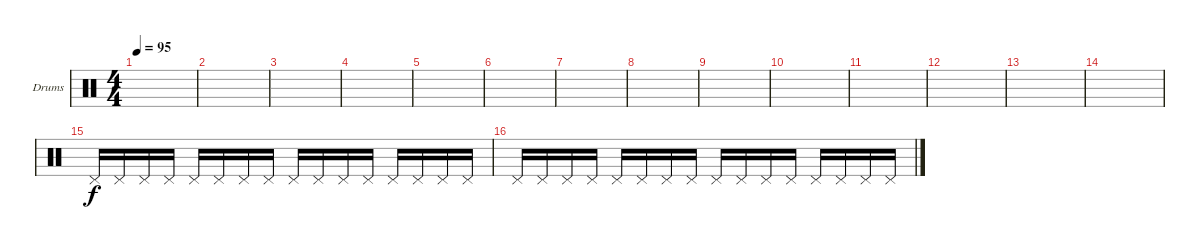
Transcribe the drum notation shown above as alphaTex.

\defaultSystemsLayout 4
\bracketExtendMode groupsimilarinstruments
\firstSystemTrackNameOrientation horizontal
\otherSystemsTrackNameOrientation horizontal
\track ("Drumkit" "Drums") {instrument percussion}
\staff {score}
\articulation defaults
\ts (4 4)
\tempo 95
\clef neutral
\scale
0.472222
\ks c
|
\scale
0.263889 |
\scale
0.263889 |
\scale
0.333333 |
\scale
0.333333 |
\scale
0.333333 |
\scale
0.333333 |
\scale
0.333333 |
\scale
0.333333 |
\scale
0.333333 |
\scale
0.333333 |
\scale
0.333333 |
\scale
0.333333 |
\scale
0.333333 |
\scale
0.333333 "Pedal Hi-Hat (hit)".16 "Pedal Hi-Hat (hit)".16 "Pedal Hi-Hat (hit)".16 "Pedal Hi-Hat (hit)".16 "Pedal Hi-Hat (hit)".16 "Pedal Hi-Hat (hit)".16 "Pedal Hi-Hat (hit)".16 "Pedal Hi-Hat (hit)".16 "Pedal Hi-Hat (hit)".16 "Pedal Hi-Hat (hit)".16 "Pedal Hi-Hat (hit)".16 "Pedal Hi-Hat (hit)".16 "Pedal Hi-Hat (hit)".16 "Pedal Hi-Hat (hit)".16 "Pedal Hi-Hat (hit)".16 "Pedal Hi-Hat (hit)".16 |
"Pedal Hi-Hat (hit)".16 "Pedal Hi-Hat (hit)".16 "Pedal Hi-Hat (hit)".16 "Pedal Hi-Hat (hit)".16 "Pedal Hi-Hat (hit)".16 "Pedal Hi-Hat (hit)".16 "Pedal Hi-Hat (hit)".16 "Pedal Hi-Hat (hit)".16 "Pedal Hi-Hat (hit)".16 "Pedal Hi-Hat (hit)".16 "Pedal Hi-Hat (hit)".16 "Pedal Hi-Hat (hit)".16 "Pedal Hi-Hat (hit)".16 "Pedal Hi-Hat (hit)".16 "Pedal Hi-Hat (hit)".16 "Pedal Hi-Hat (hit)".16
